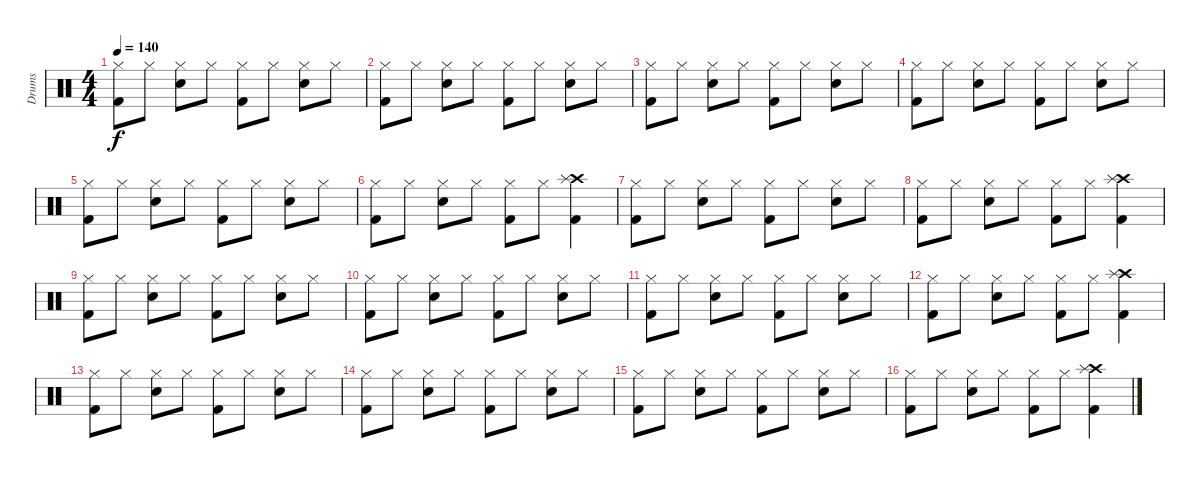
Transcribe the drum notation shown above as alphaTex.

\track ("Drums" "Drums") {instrument percussion}
\staff {score}
\articulation defaults
\ts (4 4)
\tempo 140
\clef neutral
\ks c
("Hi-Hat (closed)" "Kick (hit) 2").8{dy f} "Hi-Hat (closed)".8 ("Hi-Hat (closed)" "Snare (hit) 2").8 "Hi-Hat (closed)".8 ("Hi-Hat (closed)" "Kick (hit) 2").8 "Hi-Hat (closed)".8 ("Hi-Hat (closed)" "Snare (hit) 2").8 "Hi-Hat (closed)".8 |
("Hi-Hat (closed)" "Kick (hit) 2").8 "Hi-Hat (closed)".8 ("Hi-Hat (closed)" "Snare (hit) 2").8 "Hi-Hat (closed)".8 ("Hi-Hat (closed)" "Kick (hit) 2").8 "Hi-Hat (closed)".8 ("Hi-Hat (closed)" "Snare (hit) 2").8 "Hi-Hat (closed)".8 |
("Hi-Hat (closed)" "Kick (hit) 2").8 "Hi-Hat (closed)".8 ("Hi-Hat (closed)" "Snare (hit) 2").8 "Hi-Hat (closed)".8 ("Hi-Hat (closed)" "Kick (hit) 2").8 "Hi-Hat (closed)".8 ("Hi-Hat (closed)" "Snare (hit) 2").8 "Hi-Hat (closed)".8 |
("Hi-Hat (closed)" "Kick (hit) 2").8 "Hi-Hat (closed)".8 ("Hi-Hat (closed)" "Snare (hit) 2").8 "Hi-Hat (closed)".8 ("Hi-Hat (closed)" "Kick (hit) 2").8 "Hi-Hat (closed)".8 ("Hi-Hat (closed)" "Snare (hit) 2").8 "Hi-Hat (closed)".8 |
("Hi-Hat (closed)" "Kick (hit) 2").8 "Hi-Hat (closed)".8 ("Hi-Hat (closed)" "Snare (hit) 2").8 "Hi-Hat (closed)".8 ("Hi-Hat (closed)" "Kick (hit) 2").8 "Hi-Hat (closed)".8 ("Hi-Hat (closed)" "Snare (hit) 2").8 "Hi-Hat (closed)".8 |
("Hi-Hat (closed)" "Kick (hit) 2").8 "Hi-Hat (closed)".8 ("Hi-Hat (closed)" "Snare (hit) 2").8 "Hi-Hat (closed)".8 ("Hi-Hat (closed)" "Kick (hit) 2").8 "Hi-Hat (closed)".8 ("Crash high (hit)" "Splash (hit)" "Kick (hit) 2").4 |
("Hi-Hat (closed)" "Kick (hit) 2").8 "Hi-Hat (closed)".8 ("Hi-Hat (closed)" "Snare (hit) 2").8 "Hi-Hat (closed)".8 ("Hi-Hat (closed)" "Kick (hit) 2").8 "Hi-Hat (closed)".8 ("Hi-Hat (closed)" "Snare (hit) 2").8 "Hi-Hat (closed)".8 |
("Hi-Hat (closed)" "Kick (hit) 2").8 "Hi-Hat (closed)".8 ("Hi-Hat (closed)" "Snare (hit) 2").8 "Hi-Hat (closed)".8 ("Hi-Hat (closed)" "Kick (hit) 2").8 "Hi-Hat (closed)".8 ("Crash high (hit)" "Splash (hit)" "Kick (hit) 2").4 |
("Hi-Hat (closed)" "Kick (hit) 2").8 "Hi-Hat (closed)".8 ("Hi-Hat (closed)" "Snare (hit) 2").8 "Hi-Hat (closed)".8 ("Hi-Hat (closed)" "Kick (hit) 2").8 "Hi-Hat (closed)".8 ("Hi-Hat (closed)" "Snare (hit) 2").8 "Hi-Hat (closed)".8 |
("Hi-Hat (closed)" "Kick (hit) 2").8 "Hi-Hat (closed)".8 ("Hi-Hat (closed)" "Snare (hit) 2").8 "Hi-Hat (closed)".8 ("Hi-Hat (closed)" "Kick (hit) 2").8 "Hi-Hat (closed)".8 ("Hi-Hat (closed)" "Snare (hit) 2").8 "Hi-Hat (closed)".8 |
("Hi-Hat (closed)" "Kick (hit) 2").8 "Hi-Hat (closed)".8 ("Hi-Hat (closed)" "Snare (hit) 2").8 "Hi-Hat (closed)".8 ("Hi-Hat (closed)" "Kick (hit) 2").8 "Hi-Hat (closed)".8 ("Hi-Hat (closed)" "Snare (hit) 2").8 "Hi-Hat (closed)".8 |
("Hi-Hat (closed)" "Kick (hit) 2").8 "Hi-Hat (closed)".8 ("Hi-Hat (closed)" "Snare (hit) 2").8 "Hi-Hat (closed)".8 ("Hi-Hat (closed)" "Kick (hit) 2").8 "Hi-Hat (closed)".8 ("Crash high (hit)" "Splash (hit)" "Kick (hit) 2").4 |
("Hi-Hat (closed)" "Kick (hit) 2").8 "Hi-Hat (closed)".8 ("Hi-Hat (closed)" "Snare (hit) 2").8 "Hi-Hat (closed)".8 ("Hi-Hat (closed)" "Kick (hit) 2").8 "Hi-Hat (closed)".8 ("Hi-Hat (closed)" "Snare (hit) 2").8 "Hi-Hat (closed)".8 |
("Hi-Hat (closed)" "Kick (hit) 2").8 "Hi-Hat (closed)".8 ("Hi-Hat (closed)" "Snare (hit) 2").8 "Hi-Hat (closed)".8 ("Hi-Hat (closed)" "Kick (hit) 2").8 "Hi-Hat (closed)".8 ("Hi-Hat (closed)" "Snare (hit) 2").8 "Hi-Hat (closed)".8 |
("Hi-Hat (closed)" "Kick (hit) 2").8 "Hi-Hat (closed)".8 ("Hi-Hat (closed)" "Snare (hit) 2").8 "Hi-Hat (closed)".8 ("Hi-Hat (closed)" "Kick (hit) 2").8 "Hi-Hat (closed)".8 ("Hi-Hat (closed)" "Snare (hit) 2").8 "Hi-Hat (closed)".8 |
("Hi-Hat (closed)" "Kick (hit) 2").8 "Hi-Hat (closed)".8 ("Hi-Hat (closed)" "Snare (hit) 2").8 "Hi-Hat (closed)".8 ("Hi-Hat (closed)" "Kick (hit) 2").8 "Hi-Hat (closed)".8 ("Crash high (hit)" "Splash (hit)" "Kick (hit) 2").4
